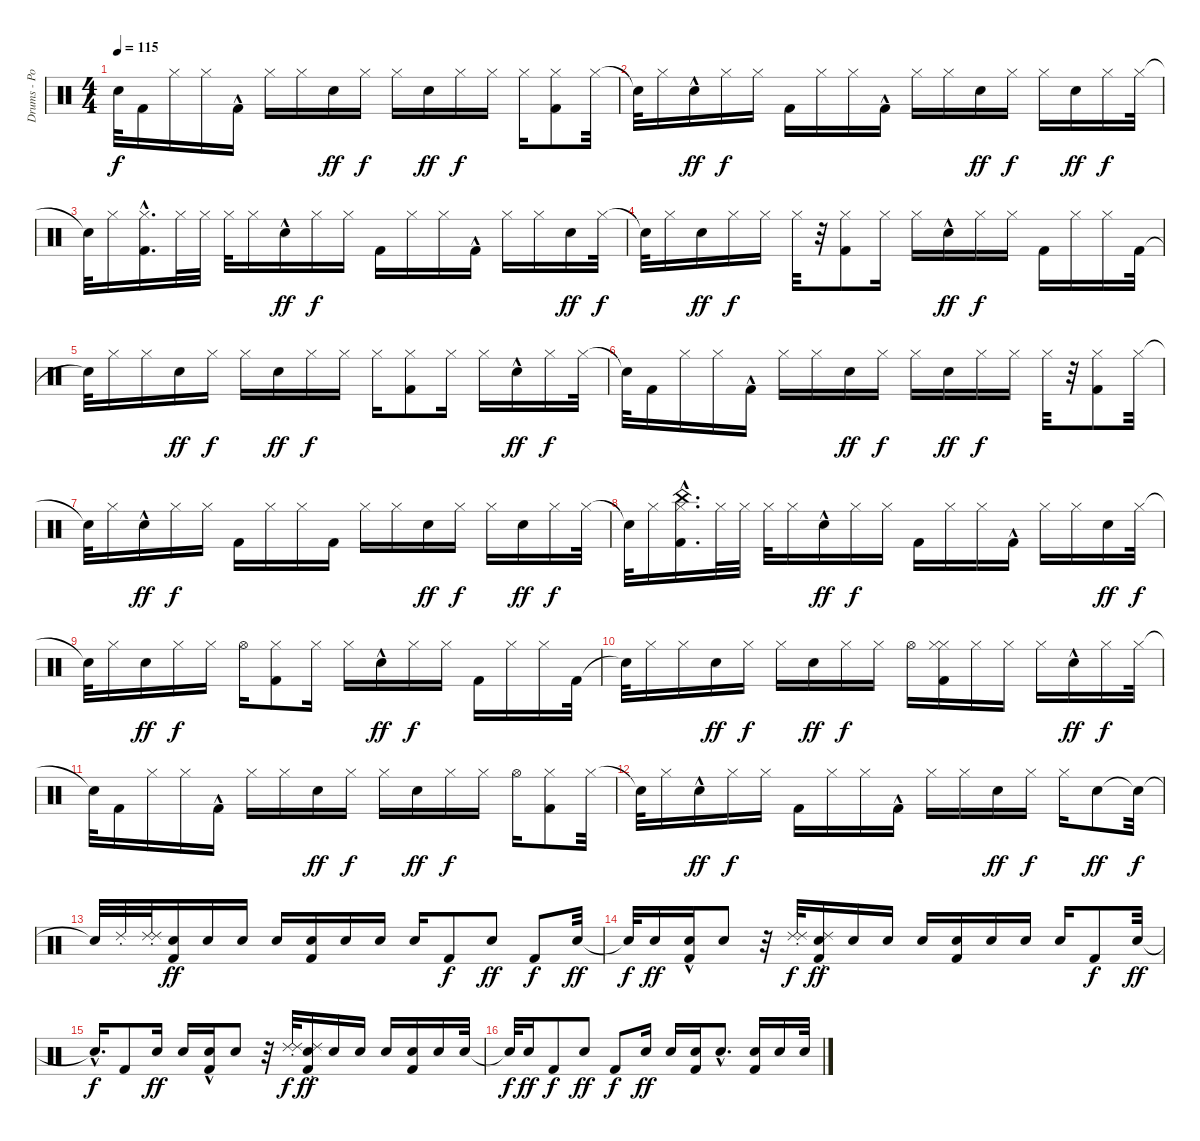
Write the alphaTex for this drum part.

\track ("Drums - Portnoy" "Drums - Po") {instrument percussion}
\staff {score}
\articulation defaults
\ts (4 4)
\tempo 115
\clef neutral
\ks c "Snare (hit)"{t}.32{dy f} "Kick (hit) 2".16 "Hi-Hat (closed)".16 "Hi-Hat (closed)".16 "Kick (hit) 2"{hac}.16 "Hi-Hat (closed)".16 "Hi-Hat (closed)".16 "Electric Snare (hit)".16{dy ff} "Hi-Hat (closed)".16{dy f} "Hi-Hat (closed)".16 "Electric Snare (hit)".16{dy ff} "Hi-Hat (closed)".16{dy f} "Hi-Hat (closed)".16 "Hi-Hat (closed)".16
("Hi-Hat (closed)" "Kick (hit) 2").8 "Hi-Hat (closed)".32 |
"Snare (hit)"{t}.32 "Hi-Hat (closed)".16 "Electric Snare (hit)"{hac}.16{dy ff} "Hi-Hat (closed)".16{dy f} "Hi-Hat (closed)".16 "Kick (hit) 2".16 "Hi-Hat (closed)".16 "Hi-Hat (closed)".16 "Kick (hit) 2"{hac}.16 "Hi-Hat (closed)".16 "Hi-Hat (closed)".16 "Electric Snare (hit)".16{dy ff} "Hi-Hat (closed)".16{dy f} "Hi-Hat (closed)".16 "Electric Snare (hit)".16{dy ff} "Hi-Hat (closed)".16{dy f} "Hi-Hat (closed)".32 |
"Snare (hit)"{t}.32 "Hi-Hat (closed)".16 ("Kick (hit) 2" "Hi-Hat (closed)"{hac}).16{d} "Hi-Hat (closed)".32 "Hi-Hat (closed)".32 "Hi-Hat (closed)".32 "Hi-Hat (closed)".16 "Electric Snare (hit)"{hac}.16{dy ff} "Hi-Hat (closed)".16{dy f} "Hi-Hat (closed)".16 "Kick (hit) 2".16 "Hi-Hat (closed)".16 "Hi-Hat (closed)".16 "Kick (hit) 2"{hac}.16 "Hi-Hat (closed)".16 "Hi-Hat (closed)".16 "Electric Snare (hit)".16{dy ff} "Hi-Hat (closed)".32{dy f} |
"Snare (hit)"{t}.32 "Hi-Hat (closed)".16 "Electric Snare (hit)".16{dy ff} "Hi-Hat (closed)".16{dy f} "Hi-Hat (closed)".16 "Hi-Hat (closed)".32 r.32 ("Kick (hit) 2" "Hi-Hat (closed)").8 "Hi-Hat (closed)".16 "Hi-Hat (closed)".16 "Electric Snare (hit)"{hac}.16{dy ff} "Hi-Hat (closed)".16{dy f} "Hi-Hat (closed)".16 "Kick (hit) 2".16 "Hi-Hat (closed)".16 "Hi-Hat (closed)".16 "Kick (hit) 2".32 |
"Snare (hit)"{t}.32 "Hi-Hat (closed)".16 "Hi-Hat (closed)".16 "Electric Snare (hit)".16{dy ff} "Hi-Hat (closed)".16{dy f} "Hi-Hat (closed)".16 "Electric Snare (hit)".16{dy ff} "Hi-Hat (closed)".16{dy f} "Hi-Hat (closed)".16 "Hi-Hat (closed)".16 ("Kick (hit) 2" "Hi-Hat (closed)").8 "Hi-Hat (closed)".16 "Hi-Hat (closed)".16 "Electric Snare (hit)"{hac}.16{dy ff} "Hi-Hat (closed)".16{dy f} "Hi-Hat (closed)".32 |
"Snare (hit)"{t}.32 "Kick (hit) 2".16 "Hi-Hat (closed)".16 "Hi-Hat (closed)".16 "Kick (hit) 2"{hac}.16 "Hi-Hat (closed)".16 "Hi-Hat (closed)".16 "Electric Snare (hit)".16{dy ff} "Hi-Hat (closed)".16{dy f} "Hi-Hat (closed)".16 "Electric Snare (hit)".16{dy ff} "Hi-Hat (closed)".16{dy f} "Hi-Hat (closed)".16 "Hi-Hat (closed)".32 r.32 ("Hi-Hat (closed)" "Kick (hit) 2").8 "Hi-Hat (closed)".32 |
"Snare (hit)"{t}.32 "Hi-Hat (closed)".16 "Electric Snare (hit)"{hac}.16{dy ff} "Hi-Hat (closed)".16{dy f} "Hi-Hat (closed)".16 "Kick (hit) 2".16 "Hi-Hat (closed)".16 "Hi-Hat (closed)".16 "Kick (hit) 2".16 "Hi-Hat (closed)".16 "Hi-Hat (closed)".16 "Electric Snare (hit)".16{dy ff} "Hi-Hat (closed)".16{dy f} "Hi-Hat (closed)".16 "Electric Snare (hit)".16{dy ff} "Hi-Hat (closed)".16{dy f} "Hi-Hat (closed)".32 |
"Snare (hit)"{t}.32 "Hi-Hat (closed)".16 ("Kick (hit) 2" "Hi-Hat (closed)"{hac} "China (hit)").16{d} "Hi-Hat (closed)".32 "Hi-Hat (closed)".32 "Hi-Hat (closed)".32 "Hi-Hat (closed)".16 "Electric Snare (hit)"{hac}.16{dy ff} "Hi-Hat (closed)".16{dy f} "Hi-Hat (closed)".16 "Kick (hit) 2".16 "Hi-Hat (closed)".16 "Hi-Hat (closed)".16 "Kick (hit) 2"{hac}.16 "Hi-Hat (closed)".16 "Hi-Hat (closed)".16 "Electric Snare (hit)".16{dy ff} "Hi-Hat (closed)".32{dy f} |
"Snare (hit)"{t}.32 "Hi-Hat (closed)".16 "Electric Snare (hit)".16{dy ff} "Hi-Hat (closed)".16{dy f} "Hi-Hat (closed)".16 "Hi-Hat (open)".16 ("Kick (hit) 2" "Hi-Hat (closed)").8 "Hi-Hat (closed)".16 "Hi-Hat (closed)".16 "Electric Snare (hit)"{hac}.16{dy ff} "Hi-Hat (closed)".16{dy f} "Hi-Hat (closed)".16 "Kick (hit) 2".16 "Hi-Hat (closed)".16 "Hi-Hat (closed)".16 "Kick (hit) 2".32 |
"Snare (hit)"{t}.32 "Hi-Hat (closed)".16 "Hi-Hat (closed)".16 "Electric Snare (hit)".16{dy ff} "Hi-Hat (closed)".16{dy f} "Hi-Hat (closed)".16 "Electric Snare (hit)".16{dy ff} "Hi-Hat (closed)".16{dy f} "Hi-Hat (closed)".16 "Hi-Hat (open)".16 ("Kick (hit) 2" "Hi-Hat (closed)" "Hi-Hat (closed)").16 "Hi-Hat (closed)".16 "Hi-Hat (closed)".16 "Hi-Hat (closed)".16 "Electric Snare (hit)"{hac}.16{dy ff} "Hi-Hat (closed)".16{dy f} "Hi-Hat (closed)".32 |
"Snare (hit)"{t}.32 "Kick (hit) 2".16 "Hi-Hat (closed)".16 "Hi-Hat (closed)".16 "Kick (hit) 2"{hac}.16 "Hi-Hat (closed)".16 "Hi-Hat (closed)".16 "Electric Snare (hit)".16{dy ff} "Hi-Hat (closed)".16{dy f} "Hi-Hat (closed)".16 "Electric Snare (hit)".16{dy ff} "Hi-Hat (closed)".16{dy f} "Hi-Hat (closed)".16 "Hi-Hat (open)".16 ("Kick (hit) 2" "Hi-Hat (closed)").8 "Hi-Hat (closed)".32 |
"Snare (hit)"{t}.32 "Hi-Hat (closed)".16 "Electric Snare (hit)"{hac}.16{dy ff} "Hi-Hat (closed)".16{dy f} "Hi-Hat (closed)".16 "Kick (hit) 2".16 "Hi-Hat (closed)".16 "Hi-Hat (closed)".16 "Kick (hit) 2"{hac}.16 "Hi-Hat (closed)".16 "Hi-Hat (closed)".16 "Electric Snare (hit)".16{dy ff} "Hi-Hat (closed)".16{dy f} "Hi-Hat (closed)".16 "Electric Snare (hit)".8{dy ff} "Snare (hit)"{t}.32{dy f} |
"Snare (hit)"{t}.32 "Ride (choke) 2".32 ("Ride (choke) 2" "Ride (choke) 2").32 ("Kick (hit) 2" "Electric Snare (hit)").16{dy ff} "Electric Snare (hit)".16 "Electric Snare (hit)".16 "Electric Snare (hit)".16 ("Kick (hit) 2" "Electric Snare (hit)").16 "Electric Snare (hit)".16 "Electric Snare (hit)".16 "Electric Snare (hit)".16 "Kick (hit) 2".8{dy f} "Electric Snare (hit)".8{dy ff} "Kick (hit) 2".8{dy f} "Electric Snare (hit)".32{dy ff} |
"Snare (hit)"{t}.32{dy f} "Electric Snare (hit)".16{dy ff} ("Kick (hit) 2"{hac} "Electric Snare (hit)").16 "Electric Snare (hit)".8 r.32 ("Ride (choke) 2" "Ride (choke) 2").32{dy f} ("Ride (choke) 2" "Kick (hit) 2" "Electric Snare (hit)").16{dy ff} "Electric Snare (hit)".16 "Electric Snare (hit)".16 "Electric Snare (hit)".16 ("Kick (hit) 2" "Electric Snare (hit)").16 "Electric Snare (hit)".16 "Electric Snare (hit)".16 "Electric Snare (hit)".16 "Kick (hit) 2".8{dy f} "Electric Snare (hit)".32{dy ff} |
"Snare (hit)"{hac t}.16{d dy f} "Kick (hit) 2".8 "Electric Snare (hit)".16{dy ff} "Electric Snare (hit)".16 ("Kick (hit) 2"{hac} "Electric Snare (hit)").16 "Electric Snare (hit)".8 r.32 ("Ride (choke) 2" "Ride (choke) 2").32{dy f} ("Ride (choke) 2" "Kick (hit) 2" "Electric Snare (hit)").16{dy ff} "Electric Snare (hit)".16 "Electric Snare (hit)".16 "Electric Snare (hit)".16 ("Kick (hit) 2" "Electric Snare (hit)").16 "Electric Snare (hit)".16 "Electric Snare (hit)".32 |
"Snare (hit)"{t}.32{dy f} "Electric Snare (hit)".16{dy ff} "Kick (hit) 2".8{dy f} "Electric Snare (hit)".8{dy ff} "Kick (hit) 2".8{dy f} "Electric Snare (hit)".16{dy ff} "Electric Snare (hit)".16 ("Kick (hit) 2" "Electric Snare (hit)").16 "Electric Snare (hit)"{hac}.8{d} ("Kick (hit) 2" "Electric Snare (hit)").16 "Electric Snare (hit)".16 "Electric Snare (hit)".32
